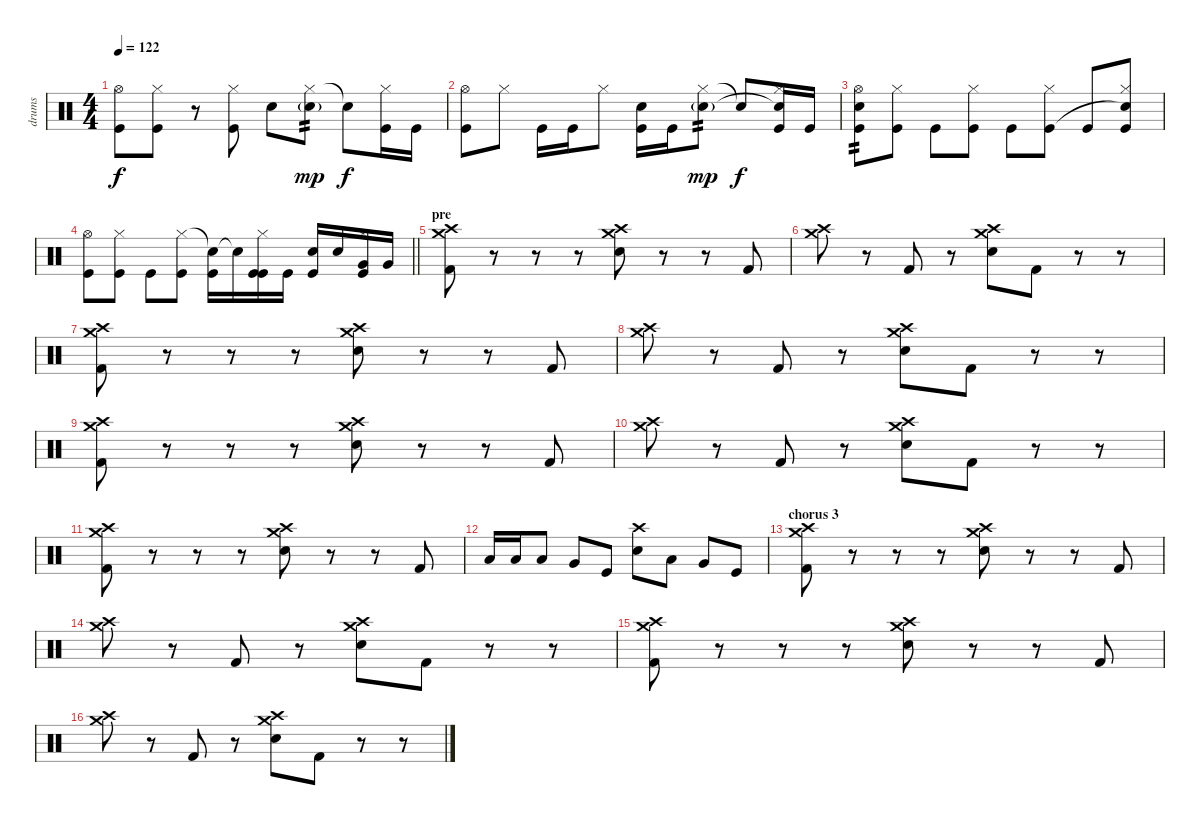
\track ("drums" "drums") {instrument percussion}
\staff {score}
\articulation defaults
\ts (4 4)
\tempo 122
\clef neutral
\ks c
("Hi-Hat (open)" "Kick (hit)").8{dy f} ("Hi-Hat (closed)" "Kick (hit)").8 r.8 ("Hi-Hat (closed)" "Kick (hit)").8 "Electric Snare (hit)".8 ("Hi-Hat (closed)" "Electric Snare (hit)"{g}).8{tp 2 dy mp} "Snare (hit)"{t}.8{dy f} ("Hi-Hat (closed)" "Kick (hit)").16 "Kick (hit)".16 |
("Hi-Hat (open)" "Kick (hit)").8 "Hi-Hat (closed)".8 "Kick (hit)".16 "Kick (hit)".16 "Hi-Hat (closed)".8 ("Electric Snare (hit)" "Kick (hit)").16 "Kick (hit)".16 ("Hi-Hat (closed)" "Electric Snare (hit)"{g}).8{tp 2 dy mp} "Snare (hit)"{t}.8{dy f} ("Hi-Hat (closed)" "Snare (hit)"{t} "Kick (hit)").16 "Kick (hit)".16 |
("Hi-Hat (open)" "Electric Snare (hit)" "Kick (hit)").8{tp 2} ("Hi-Hat (closed)" "Kick (hit)").8 "Kick (hit)".8 ("Hi-Hat (closed)" "Kick (hit)").8 "Kick (hit)".8 ("Hi-Hat (closed)" "Kick (hit)").8 "Kick (hit)".8 ("Hi-Hat (closed)" "Snare (hit)"{t} "Kick (hit)").8 |
\barLineRight lightlight
("Hi-Hat (open)" "Kick (hit)").8 ("Hi-Hat (closed)" "Kick (hit)").8 "Kick (hit)".8 ("Hi-Hat (closed)" "Kick (hit)").8 ("Snare (hit)"{t} "Kick (hit)").16 "Snare (hit)"{t}.16 ("Hi-Hat (closed)" "Kick (hit)" "Kick (hit)").16 "Kick (hit)".16 ("Electric Snare (hit)" "Kick (hit)").16 "Electric Snare (hit)".16 ("Hi-Hat (closed)" "Very Low Tom (hit)" "Kick (hit)").16 "Very Low Tom (hit)".16 |
\section ("" "pre")
("Crash medium (hit)" "Crash high (hit)" "Kick (hit) 2").8 r.8 r.8 r.8 ("Crash medium (hit)" "Crash high (hit)" "Electric Snare (hit)").8 r.8 r.8 "Kick (hit) 2".8 |
("Crash medium (hit)" "Crash high (hit)").8 r.8 "Kick (hit) 2".8 r.8 ("Crash medium (hit)" "Crash high (hit)" "Electric Snare (hit)").8 "Kick (hit) 2".8 r.8 r.8 |
("Crash medium (hit)" "Crash high (hit)" "Kick (hit) 2").8 r.8 r.8 r.8 ("Crash medium (hit)" "Crash high (hit)" "Electric Snare (hit)").8 r.8 r.8 "Kick (hit) 2".8 |
("Crash medium (hit)" "Crash high (hit)").8 r.8 "Kick (hit) 2".8 r.8 ("Crash medium (hit)" "Crash high (hit)" "Electric Snare (hit)").8 "Kick (hit) 2".8 r.8 r.8 |
("Crash medium (hit)" "Crash high (hit)" "Kick (hit) 2").8 r.8 r.8 r.8 ("Crash medium (hit)" "Crash high (hit)" "Electric Snare (hit)").8 r.8 r.8 "Kick (hit) 2".8 |
("Crash medium (hit)" "Crash high (hit)").8 r.8 "Kick (hit) 2".8 r.8 ("Crash medium (hit)" "Crash high (hit)" "Electric Snare (hit)").8 "Kick (hit) 2".8 r.8 r.8 |
("Crash medium (hit)" "Crash high (hit)" "Kick (hit) 2").8 r.8 r.8 r.8 ("Crash medium (hit)" "Crash high (hit)" "Electric Snare (hit)").8 r.8 r.8 "Kick (hit) 2".8 |
"Low Tom (hit)".16 "Low Tom (hit)".16 "Low Tom (hit)".8 "Very Low Tom (hit)".8 "Kick (hit)".8 ("Crash high (hit)" "Electric Snare (hit)").8 "Low Tom (hit)".8 "Very Low Tom (hit)".8 "Kick (hit)".8 |
\section ("" "chorus 3")
("Crash medium (hit)" "Crash high (hit)" "Kick (hit) 2").8 r.8 r.8 r.8 ("Crash medium (hit)" "Crash high (hit)" "Electric Snare (hit)").8 r.8 r.8 "Kick (hit) 2".8 |
("Crash medium (hit)" "Crash high (hit)").8 r.8 "Kick (hit) 2".8 r.8 ("Crash medium (hit)" "Crash high (hit)" "Electric Snare (hit)").8 "Kick (hit) 2".8 r.8 r.8 |
("Crash medium (hit)" "Crash high (hit)" "Kick (hit) 2").8 r.8 r.8 r.8 ("Crash medium (hit)" "Crash high (hit)" "Electric Snare (hit)").8 r.8 r.8 "Kick (hit) 2".8 |
("Crash medium (hit)" "Crash high (hit)").8 r.8 "Kick (hit) 2".8 r.8 ("Crash medium (hit)" "Crash high (hit)" "Electric Snare (hit)").8 "Kick (hit) 2".8 r.8 r.8
